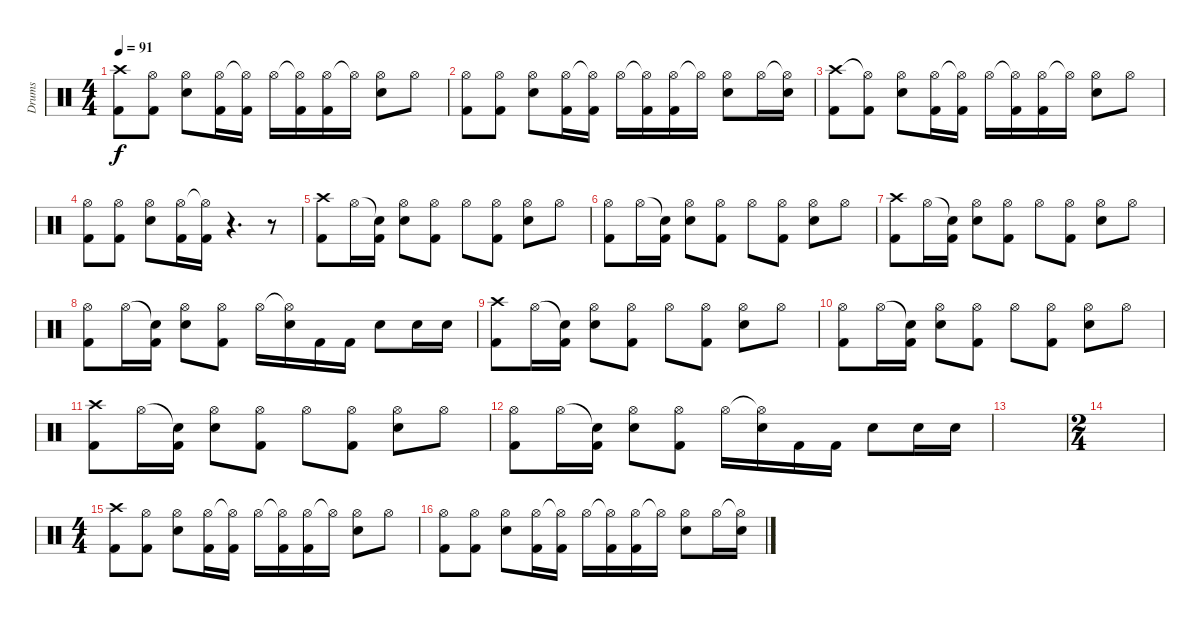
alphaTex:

\track ("Drums" "Drums") {instrument percussion}
\staff {score}
\articulation defaults
\ts (4 4)
\tempo 91
\clef neutral
\ks c
("Crash high (hit)" "Kick (hit) 2").8{dy f} ("Hi-Hat (open)" "Kick (hit) 2").8 ("Hi-Hat (open)" "Electric Snare (hit)").8 ("Hi-Hat (open)" "Kick (hit) 2").16 ("Hi-Hat (open)"{t} "Kick (hit) 2").16 "Hi-Hat (open)".16 ("Hi-Hat (open)"{t} "Kick (hit) 2").16 ("Hi-Hat (open)" "Kick (hit) 2").16 "Hi-Hat (open)"{t}.16 ("Hi-Hat (open)" "Electric Snare (hit)").8 "Hi-Hat (open)".8 |
("Hi-Hat (open)" "Kick (hit) 2").8 ("Hi-Hat (open)" "Kick (hit) 2").8 ("Hi-Hat (open)" "Electric Snare (hit)").8 ("Hi-Hat (open)" "Kick (hit) 2").16 ("Hi-Hat (open)"{t} "Kick (hit) 2").16 "Hi-Hat (open)".16 ("Hi-Hat (open)"{t} "Kick (hit) 2").16 ("Hi-Hat (open)" "Kick (hit) 2").16 "Hi-Hat (open)"{t}.16 ("Hi-Hat (open)" "Electric Snare (hit)").8 "Hi-Hat (open)".16 ("Hi-Hat (open)"{t} "Electric Snare (hit)").16 |
("Crash high (hit)" "Kick (hit) 2").8 ("Hi-Hat (open)"{t} "Kick (hit) 2").8 ("Hi-Hat (open)" "Electric Snare (hit)").8 ("Hi-Hat (open)" "Kick (hit) 2").16 ("Hi-Hat (open)"{t} "Kick (hit) 2").16 "Hi-Hat (open)".16 ("Hi-Hat (open)"{t} "Kick (hit) 2").16 ("Hi-Hat (open)" "Kick (hit) 2").16 "Hi-Hat (open)"{t}.16 ("Hi-Hat (open)" "Electric Snare (hit)").8 "Hi-Hat (open)".8 |
("Hi-Hat (open)" "Kick (hit) 2").8 ("Hi-Hat (open)" "Kick (hit) 2").8 ("Hi-Hat (open)" "Electric Snare (hit)").8 ("Hi-Hat (open)" "Kick (hit) 2").16 ("Hi-Hat (open)"{t} "Kick (hit) 2").16 r.4{d} r.8 |
("Crash high (hit)" "Kick (hit) 2").8 "Hi-Hat (open)".16 ("Snare (hit)"{t} "Kick (hit) 2").16 ("Hi-Hat (open)" "Electric Snare (hit)").8 ("Hi-Hat (open)" "Kick (hit) 2").8 "Hi-Hat (open)".8 ("Hi-Hat (open)" "Kick (hit) 2").8 ("Hi-Hat (open)" "Electric Snare (hit)").8 "Hi-Hat (open)".8 |
("Hi-Hat (open)" "Kick (hit) 2").8 "Hi-Hat (open)".16 ("Snare (hit)"{t} "Kick (hit) 2").16 ("Hi-Hat (open)" "Electric Snare (hit)").8 ("Hi-Hat (open)" "Kick (hit) 2").8 "Hi-Hat (open)".8 ("Hi-Hat (open)" "Kick (hit) 2").8 ("Hi-Hat (open)" "Electric Snare (hit)").8 "Hi-Hat (open)".8 |
("Crash high (hit)" "Kick (hit) 2").8 "Hi-Hat (open)".16 ("Snare (hit)"{t} "Kick (hit) 2").16 ("Hi-Hat (open)" "Electric Snare (hit)").8 ("Hi-Hat (open)" "Kick (hit) 2").8 "Hi-Hat (open)".8 ("Hi-Hat (open)" "Kick (hit) 2").8 ("Hi-Hat (open)" "Electric Snare (hit)").8 "Hi-Hat (open)".8 |
("Hi-Hat (open)" "Kick (hit) 2").8 "Hi-Hat (open)".16 ("Snare (hit)"{t} "Kick (hit) 2").16 ("Hi-Hat (open)" "Electric Snare (hit)").8 ("Hi-Hat (open)" "Kick (hit) 2").8 "Hi-Hat (open)".16 ("Hi-Hat (open)"{t} "Electric Snare (hit)").16 "Kick (hit) 2".16 "Kick (hit) 2".16 "Electric Snare (hit)".8 "Electric Snare (hit)".16 "Electric Snare (hit)".16 |
("Crash high (hit)" "Kick (hit) 2").8 "Hi-Hat (open)".16 ("Snare (hit)"{t} "Kick (hit) 2").16 ("Hi-Hat (open)" "Electric Snare (hit)").8 ("Hi-Hat (open)" "Kick (hit) 2").8 "Hi-Hat (open)".8 ("Hi-Hat (open)" "Kick (hit) 2").8 ("Hi-Hat (open)" "Electric Snare (hit)").8 "Hi-Hat (open)".8 |
("Hi-Hat (open)" "Kick (hit) 2").8 "Hi-Hat (open)".16 ("Snare (hit)"{t} "Kick (hit) 2").16 ("Hi-Hat (open)" "Electric Snare (hit)").8 ("Hi-Hat (open)" "Kick (hit) 2").8 "Hi-Hat (open)".8 ("Hi-Hat (open)" "Kick (hit) 2").8 ("Hi-Hat (open)" "Electric Snare (hit)").8 "Hi-Hat (open)".8 |
("Crash high (hit)" "Kick (hit) 2").8 "Hi-Hat (open)".16 ("Snare (hit)"{t} "Kick (hit) 2").16 ("Hi-Hat (open)" "Electric Snare (hit)").8 ("Hi-Hat (open)" "Kick (hit) 2").8 "Hi-Hat (open)".8 ("Hi-Hat (open)" "Kick (hit) 2").8 ("Hi-Hat (open)" "Electric Snare (hit)").8 "Hi-Hat (open)".8 |
("Hi-Hat (open)" "Kick (hit) 2").8 "Hi-Hat (open)".16 ("Snare (hit)"{t} "Kick (hit) 2").16 ("Hi-Hat (open)" "Electric Snare (hit)").8 ("Hi-Hat (open)" "Kick (hit) 2").8 "Hi-Hat (open)".16 ("Hi-Hat (open)"{t} "Electric Snare (hit)").16 "Kick (hit) 2".16 "Kick (hit) 2".16 "Electric Snare (hit)".8 "Electric Snare (hit)".16 "Electric Snare (hit)".16 |
|
\ts (2 4)
|
\ts (4 4)
("Crash high (hit)" "Kick (hit) 2").8 ("Hi-Hat (open)" "Kick (hit) 2").8 ("Hi-Hat (open)" "Electric Snare (hit)").8 ("Hi-Hat (open)" "Kick (hit) 2").16 ("Hi-Hat (open)"{t} "Kick (hit) 2").16 "Hi-Hat (open)".16 ("Hi-Hat (open)"{t} "Kick (hit) 2").16 ("Hi-Hat (open)" "Kick (hit) 2").16 "Hi-Hat (open)"{t}.16 ("Hi-Hat (open)" "Electric Snare (hit)").8 "Hi-Hat (open)".8 |
("Hi-Hat (open)" "Kick (hit) 2").8 ("Hi-Hat (open)" "Kick (hit) 2").8 ("Hi-Hat (open)" "Electric Snare (hit)").8 ("Hi-Hat (open)" "Kick (hit) 2").16 ("Hi-Hat (open)"{t} "Kick (hit) 2").16 "Hi-Hat (open)".16 ("Hi-Hat (open)"{t} "Kick (hit) 2").16 ("Hi-Hat (open)" "Kick (hit) 2").16 "Hi-Hat (open)"{t}.16 ("Hi-Hat (open)" "Electric Snare (hit)").8 "Hi-Hat (open)".16 ("Hi-Hat (open)"{t} "Electric Snare (hit)").16
